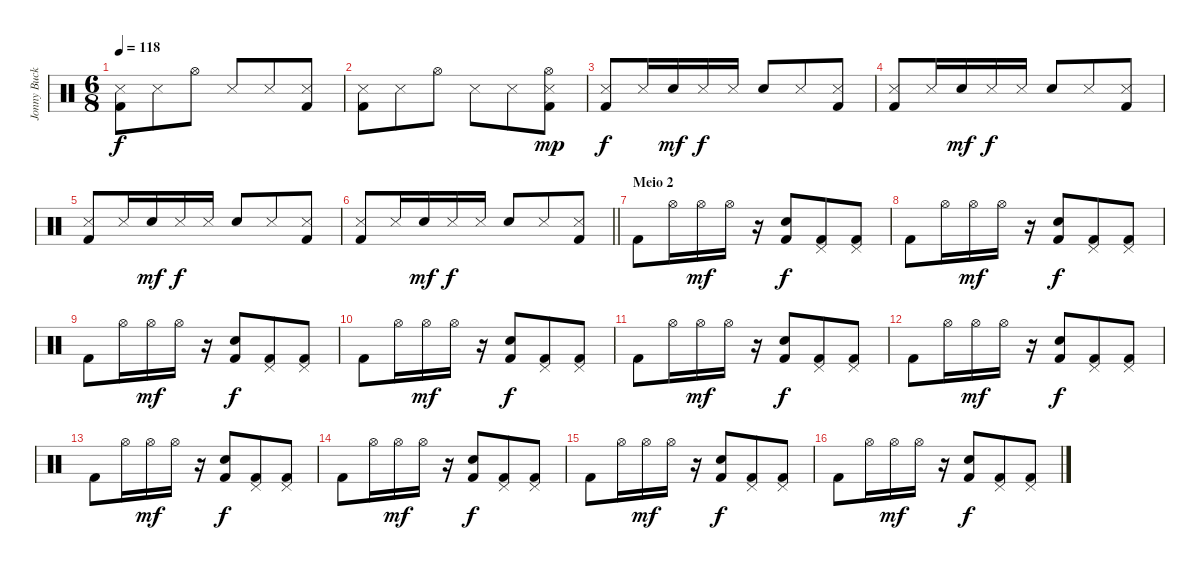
\track ("Jonny Buckland (batera)" "Jonny Buck") {instrument percussion}
\staff {score}
\articulation defaults
\ts (6 8)
\tempo 118
\clef neutral
\ks c
("Snare (side stick) 3" "Kick (hit) 2").8{dy f} "Snare (side stick) 3".8 "Hi-Hat (open)".8 "Snare (side stick) 3".8 "Snare (side stick) 3".8 ("Snare (side stick) 3" "Kick (hit) 2").8 |
("Snare (side stick) 3" "Kick (hit) 2").8 "Snare (side stick) 3".8 "Hi-Hat (open)".8 "Snare (side stick) 3".8 "Snare (side stick) 3".8 ("Snare (side stick) 3" "Hi-Hat (open)" "Kick (hit) 2").8{dy mp} |
("Snare (side stick) 3" "Kick (hit) 2").8{dy f} "Snare (side stick) 3".16 "Snare (hit) 2".16{dy mf} "Snare (side stick) 3".16{dy f} "Snare (side stick) 3".16 "Electric Snare (hit)".8 "Snare (side stick) 3".8 ("Snare (side stick) 3" "Kick (hit) 2").8 |
("Snare (side stick) 3" "Kick (hit) 2").8 "Snare (side stick) 3".16 "Snare (hit) 2".16{dy mf} "Snare (side stick) 3".16{dy f} "Snare (side stick) 3".16 "Electric Snare (hit)".8 "Snare (side stick) 3".8 ("Snare (side stick) 3" "Kick (hit) 2").8 |
("Snare (side stick) 3" "Kick (hit) 2").8 "Snare (side stick) 3".16 "Snare (hit) 2".16{dy mf} "Snare (side stick) 3".16{dy f} "Snare (side stick) 3".16 "Electric Snare (hit)".8 "Snare (side stick) 3".8 ("Snare (side stick) 3" "Kick (hit) 2").8 |
\barLineRight lightlight
("Snare (side stick) 3" "Kick (hit) 2").8 "Snare (side stick) 3".16 "Snare (hit) 2".16{dy mf} "Snare (side stick) 3".16{dy f} "Snare (side stick) 3".16 "Electric Snare (hit)".8 "Snare (side stick) 3".8 ("Snare (side stick) 3" "Kick (hit) 2").8 |
\section ("" "Meio 2")
"Kick (hit) 2".8 "Hi-Hat (open)".16 "Hi-Hat (open)".16{dy mf} "Hi-Hat (open)".16 r.16 ("Electric Snare (hit)" "Kick (hit) 2").8{dy f} ("Pedal Hi-Hat (hit)" "Kick (hit) 2").8 ("Pedal Hi-Hat (hit)" "Kick (hit) 2").8 |
"Kick (hit) 2".8 "Hi-Hat (open)".16 "Hi-Hat (open)".16{dy mf} "Hi-Hat (open)".16 r.16 ("Electric Snare (hit)" "Kick (hit) 2").8{dy f} ("Pedal Hi-Hat (hit)" "Kick (hit) 2").8 ("Pedal Hi-Hat (hit)" "Kick (hit) 2").8 |
"Kick (hit) 2".8 "Hi-Hat (open)".16 "Hi-Hat (open)".16{dy mf} "Hi-Hat (open)".16 r.16 ("Electric Snare (hit)" "Kick (hit) 2").8{dy f} ("Pedal Hi-Hat (hit)" "Kick (hit) 2").8 ("Pedal Hi-Hat (hit)" "Kick (hit) 2").8 |
"Kick (hit) 2".8 "Hi-Hat (open)".16 "Hi-Hat (open)".16{dy mf} "Hi-Hat (open)".16 r.16 ("Electric Snare (hit)" "Kick (hit) 2").8{dy f} ("Pedal Hi-Hat (hit)" "Kick (hit) 2").8 ("Pedal Hi-Hat (hit)" "Kick (hit) 2").8 |
"Kick (hit) 2".8 "Hi-Hat (open)".16 "Hi-Hat (open)".16{dy mf} "Hi-Hat (open)".16 r.16 ("Electric Snare (hit)" "Kick (hit) 2").8{dy f} ("Pedal Hi-Hat (hit)" "Kick (hit) 2").8 ("Pedal Hi-Hat (hit)" "Kick (hit) 2").8 |
"Kick (hit) 2".8 "Hi-Hat (open)".16 "Hi-Hat (open)".16{dy mf} "Hi-Hat (open)".16 r.16 ("Electric Snare (hit)" "Kick (hit) 2").8{dy f} ("Pedal Hi-Hat (hit)" "Kick (hit) 2").8 ("Pedal Hi-Hat (hit)" "Kick (hit) 2").8 |
"Kick (hit) 2".8 "Hi-Hat (open)".16 "Hi-Hat (open)".16{dy mf} "Hi-Hat (open)".16 r.16 ("Electric Snare (hit)" "Kick (hit) 2").8{dy f} ("Pedal Hi-Hat (hit)" "Kick (hit) 2").8 ("Pedal Hi-Hat (hit)" "Kick (hit) 2").8 |
"Kick (hit) 2".8 "Hi-Hat (open)".16 "Hi-Hat (open)".16{dy mf} "Hi-Hat (open)".16 r.16 ("Electric Snare (hit)" "Kick (hit) 2").8{dy f} ("Pedal Hi-Hat (hit)" "Kick (hit) 2").8 ("Pedal Hi-Hat (hit)" "Kick (hit) 2").8 |
"Kick (hit) 2".8 "Hi-Hat (open)".16 "Hi-Hat (open)".16{dy mf} "Hi-Hat (open)".16 r.16 ("Electric Snare (hit)" "Kick (hit) 2").8{dy f} ("Pedal Hi-Hat (hit)" "Kick (hit) 2").8 ("Pedal Hi-Hat (hit)" "Kick (hit) 2").8 |
"Kick (hit) 2".8 "Hi-Hat (open)".16 "Hi-Hat (open)".16{dy mf} "Hi-Hat (open)".16 r.16 ("Electric Snare (hit)" "Kick (hit) 2").8{dy f} ("Pedal Hi-Hat (hit)" "Kick (hit) 2").8 ("Pedal Hi-Hat (hit)" "Kick (hit) 2").8
